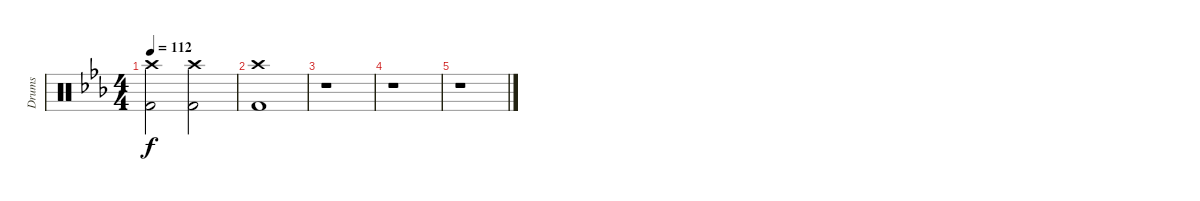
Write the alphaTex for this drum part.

\track ("Drums" "Drums") {instrument percussion}
\staff {score}
\articulation defaults
\ts (4 4)
\tempo 112
\clef neutral
\ks eb
("Kick (hit) 2" "Crash high (hit)").2{dy f} ("Kick (hit) 2" "Crash high (hit)").2 |
("Kick (hit) 2" "Crash high (hit)").1 |
r.1 |
r.1 |
r.1
